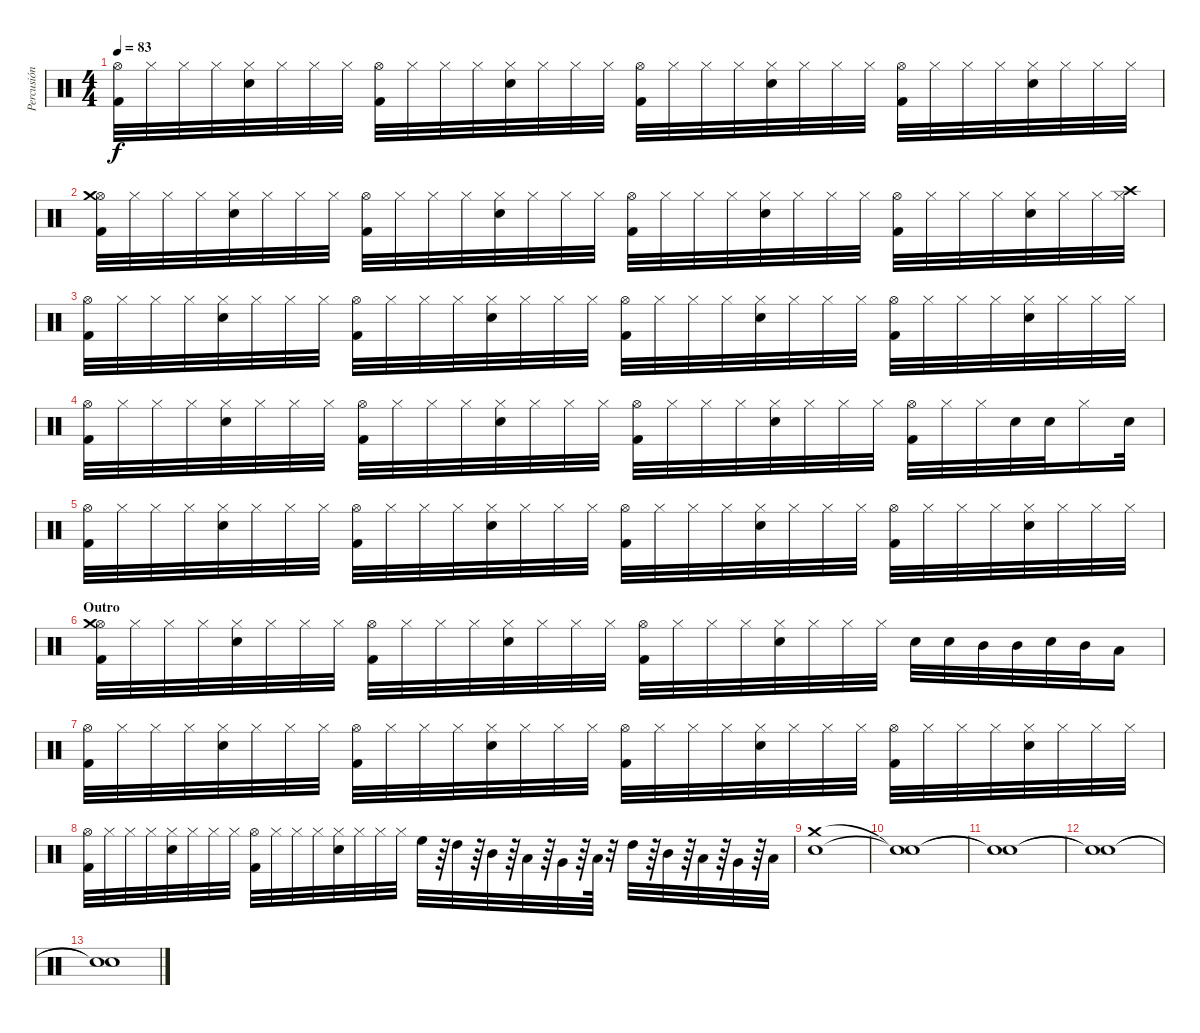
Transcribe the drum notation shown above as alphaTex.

\track ("Percusión" "Percusión") {instrument percussion}
\staff {score}
\articulation defaults
\ts (4 4)
\tempo 83
\clef neutral
\ks c
("Hi-Hat (open)" "Kick (hit) 2").32{dy f} "Hi-Hat (closed)".32 "Hi-Hat (closed)".32 "Hi-Hat (closed)".32 ("Hi-Hat (closed)" "Snare (hit) 2").32 "Hi-Hat (closed)".32 "Hi-Hat (closed)".32 "Hi-Hat (closed)".32 ("Hi-Hat (open)" "Kick (hit) 2").32 "Hi-Hat (closed)".32 "Hi-Hat (closed)".32 "Hi-Hat (closed)".32 ("Hi-Hat (closed)" "Snare (hit) 2").32 "Hi-Hat (closed)".32 "Hi-Hat (closed)".32 "Hi-Hat (closed)".32 ("Hi-Hat (open)" "Kick (hit) 2").32 "Hi-Hat (closed)".32 "Hi-Hat (closed)".32 "Hi-Hat (closed)".32 ("Hi-Hat (closed)" "Snare (hit) 2").32 "Hi-Hat (closed)".32 "Hi-Hat (closed)".32 "Hi-Hat (closed)".32 ("Hi-Hat (open)" "Kick (hit) 2").32 "Hi-Hat (closed)".32 "Hi-Hat (closed)".32 "Hi-Hat (closed)".32 ("Hi-Hat (closed)" "Snare (hit) 2").32 "Hi-Hat (closed)".32 "Hi-Hat (closed)".32 "Hi-Hat (closed)".32 |
("Hi-Hat (open)" "Kick (hit) 2" "Crash medium (hit)").32 "Hi-Hat (closed)".32 "Hi-Hat (closed)".32 "Hi-Hat (closed)".32 ("Hi-Hat (closed)" "Snare (hit) 2").32 "Hi-Hat (closed)".32 "Hi-Hat (closed)".32 "Hi-Hat (closed)".32 ("Hi-Hat (open)" "Kick (hit) 2").32 "Hi-Hat (closed)".32 "Hi-Hat (closed)".32 "Hi-Hat (closed)".32 ("Hi-Hat (closed)" "Snare (hit) 2").32 "Hi-Hat (closed)".32 "Hi-Hat (closed)".32 "Hi-Hat (closed)".32 ("Hi-Hat (open)" "Kick (hit) 2").32 "Hi-Hat (closed)".32 "Hi-Hat (closed)".32 "Hi-Hat (closed)".32 ("Hi-Hat (closed)" "Snare (hit) 2").32 "Hi-Hat (closed)".32 "Hi-Hat (closed)".32 "Hi-Hat (closed)".32 ("Hi-Hat (open)" "Kick (hit) 2").32 "Hi-Hat (closed)".32 "Hi-Hat (closed)".32 "Hi-Hat (closed)".32 ("Hi-Hat (closed)" "Snare (hit) 2").32 "Hi-Hat (closed)".32 "Hi-Hat (closed)".32 ("Hi-Hat (closed)" "Crash high (hit)").32 |
("Hi-Hat (open)" "Kick (hit) 2").32 "Hi-Hat (closed)".32 "Hi-Hat (closed)".32 "Hi-Hat (closed)".32 ("Hi-Hat (closed)" "Snare (hit) 2").32 "Hi-Hat (closed)".32 "Hi-Hat (closed)".32 "Hi-Hat (closed)".32 ("Hi-Hat (open)" "Kick (hit) 2").32 "Hi-Hat (closed)".32 "Hi-Hat (closed)".32 "Hi-Hat (closed)".32 ("Hi-Hat (closed)" "Snare (hit) 2").32 "Hi-Hat (closed)".32 "Hi-Hat (closed)".32 "Hi-Hat (closed)".32 ("Hi-Hat (open)" "Kick (hit) 2").32 "Hi-Hat (closed)".32 "Hi-Hat (closed)".32 "Hi-Hat (closed)".32 ("Hi-Hat (closed)" "Snare (hit) 2").32 "Hi-Hat (closed)".32 "Hi-Hat (closed)".32 "Hi-Hat (closed)".32 ("Hi-Hat (open)" "Kick (hit) 2").32 "Hi-Hat (closed)".32 "Hi-Hat (closed)".32 "Hi-Hat (closed)".32 ("Hi-Hat (closed)" "Snare (hit) 2").32 "Hi-Hat (closed)".32 "Hi-Hat (closed)".32 "Hi-Hat (closed)".32 |
("Hi-Hat (open)" "Kick (hit) 2").32 "Hi-Hat (closed)".32 "Hi-Hat (closed)".32 "Hi-Hat (closed)".32 ("Hi-Hat (closed)" "Snare (hit) 2").32 "Hi-Hat (closed)".32 "Hi-Hat (closed)".32 "Hi-Hat (closed)".32 ("Hi-Hat (open)" "Kick (hit) 2").32 "Hi-Hat (closed)".32 "Hi-Hat (closed)".32 "Hi-Hat (closed)".32 ("Hi-Hat (closed)" "Snare (hit) 2").32 "Hi-Hat (closed)".32 "Hi-Hat (closed)".32 "Hi-Hat (closed)".32 ("Hi-Hat (open)" "Kick (hit) 2").32 "Hi-Hat (closed)".32 "Hi-Hat (closed)".32 "Hi-Hat (closed)".32 ("Hi-Hat (closed)" "Snare (hit) 2").32 "Hi-Hat (closed)".32 "Hi-Hat (closed)".32 "Hi-Hat (closed)".32 ("Hi-Hat (open)" "Kick (hit) 2").32 "Hi-Hat (closed)".32 "Hi-Hat (closed)".32 "Snare (hit) 2".32 "Snare (hit) 2".32 "Hi-Hat (closed)".16 "Snare (hit) 2".32 |
("Hi-Hat (open)" "Kick (hit) 2").32 "Hi-Hat (closed)".32 "Hi-Hat (closed)".32 "Hi-Hat (closed)".32 ("Hi-Hat (closed)" "Snare (hit) 2").32 "Hi-Hat (closed)".32 "Hi-Hat (closed)".32 "Hi-Hat (closed)".32 ("Hi-Hat (open)" "Kick (hit) 2").32 "Hi-Hat (closed)".32 "Hi-Hat (closed)".32 "Hi-Hat (closed)".32 ("Hi-Hat (closed)" "Snare (hit) 2").32 "Hi-Hat (closed)".32 "Hi-Hat (closed)".32 "Hi-Hat (closed)".32 ("Hi-Hat (open)" "Kick (hit) 2").32 "Hi-Hat (closed)".32 "Hi-Hat (closed)".32 "Hi-Hat (closed)".32 ("Hi-Hat (closed)" "Snare (hit) 2").32 "Hi-Hat (closed)".32 "Hi-Hat (closed)".32 "Hi-Hat (closed)".32 ("Hi-Hat (open)" "Kick (hit) 2").32 "Hi-Hat (closed)".32 "Hi-Hat (closed)".32 "Hi-Hat (closed)".32 ("Hi-Hat (closed)" "Snare (hit) 2").32 "Hi-Hat (closed)".32 "Hi-Hat (closed)".32 "Hi-Hat (closed)".32 |
\section ("" "Outro")
("Hi-Hat (open)" "Kick (hit) 2" "Crash medium (hit)").32 "Hi-Hat (closed)".32 "Hi-Hat (closed)".32 "Hi-Hat (closed)".32 ("Hi-Hat (closed)" "Snare (hit) 2").32 "Hi-Hat (closed)".32 "Hi-Hat (closed)".32 "Hi-Hat (closed)".32 ("Hi-Hat (open)" "Kick (hit) 2").32 "Hi-Hat (closed)".32 "Hi-Hat (closed)".32 "Hi-Hat (closed)".32 ("Hi-Hat (closed)" "Snare (hit) 2").32 "Hi-Hat (closed)".32 "Hi-Hat (closed)".32 "Hi-Hat (closed)".32 ("Hi-Hat (open)" "Kick (hit) 2").32 "Hi-Hat (closed)".32 "Hi-Hat (closed)".32 "Hi-Hat (closed)".32 ("Hi-Hat (closed)" "Snare (hit) 2").32 "Hi-Hat (closed)".32 "Hi-Hat (closed)".32 "Hi-Hat (closed)".32 "Snare (hit) 2".32 "Snare (hit) 2".32 "Mid Tom (hit)".32 "Mid Tom (hit)".32 "Snare (hit) 2".32 "Mid Tom (hit)".32 "Low Tom (hit)".16 |
("Hi-Hat (open)" "Kick (hit) 2").32 "Hi-Hat (closed)".32 "Hi-Hat (closed)".32 "Hi-Hat (closed)".32 ("Hi-Hat (closed)" "Snare (hit) 2").32 "Hi-Hat (closed)".32 "Hi-Hat (closed)".32 "Hi-Hat (closed)".32 ("Hi-Hat (open)" "Kick (hit) 2").32 "Hi-Hat (closed)".32 "Hi-Hat (closed)".32 "Hi-Hat (closed)".32 ("Hi-Hat (closed)" "Snare (hit) 2").32 "Hi-Hat (closed)".32 "Hi-Hat (closed)".32 "Hi-Hat (closed)".32 ("Hi-Hat (open)" "Kick (hit) 2").32 "Hi-Hat (closed)".32 "Hi-Hat (closed)".32 "Hi-Hat (closed)".32 ("Hi-Hat (closed)" "Snare (hit) 2").32 "Hi-Hat (closed)".32 "Hi-Hat (closed)".32 "Hi-Hat (closed)".32 ("Hi-Hat (open)" "Kick (hit) 2").32 "Hi-Hat (closed)".32 "Hi-Hat (closed)".32 "Hi-Hat (closed)".32 ("Hi-Hat (closed)" "Snare (hit) 2").32 "Hi-Hat (closed)".32 "Hi-Hat (closed)".32 "Hi-Hat (closed)".32 |
("Hi-Hat (open)" "Kick (hit) 2").32 "Hi-Hat (closed)".32 "Hi-Hat (closed)".32 "Hi-Hat (closed)".32 ("Hi-Hat (closed)" "Snare (hit) 2").32 "Hi-Hat (closed)".32 "Hi-Hat (closed)".32 "Hi-Hat (closed)".32 ("Hi-Hat (open)" "Kick (hit) 2").32 "Hi-Hat (closed)".32 "Hi-Hat (closed)".32 "Hi-Hat (closed)".32 ("Hi-Hat (closed)" "Snare (hit) 2").32 "Hi-Hat (closed)".32 "Hi-Hat (closed)".32 "Hi-Hat (closed)".32 "High Floor Tom (hit)".32 r.64 "High Tom (hit)".32 r.64 "Mid Tom (hit)".32 r.64 "Low Tom (hit)".32 r.64 "Very Low Tom (hit)".32 r.64 "Low Floor Tom (hit)".64 r.32 "High Tom (hit)".32 r.64 "Mid Tom (hit)".32 r.64 "Low Tom (hit)".32 r.64 "Very Low Tom (hit)".32 r.64 "Low Floor Tom (hit)".32 |
("Snare (hit) 2" "Crash medium (hit)").1 |
("Snare (hit)"{t} "Snare (hit)"{t}).1 |
("Snare (hit)"{t} "Snare (hit)"{t}).1 |
("Snare (hit)"{t} "Snare (hit)"{t}).1 |
("Snare (hit)"{t} "Snare (hit)"{t}).1
